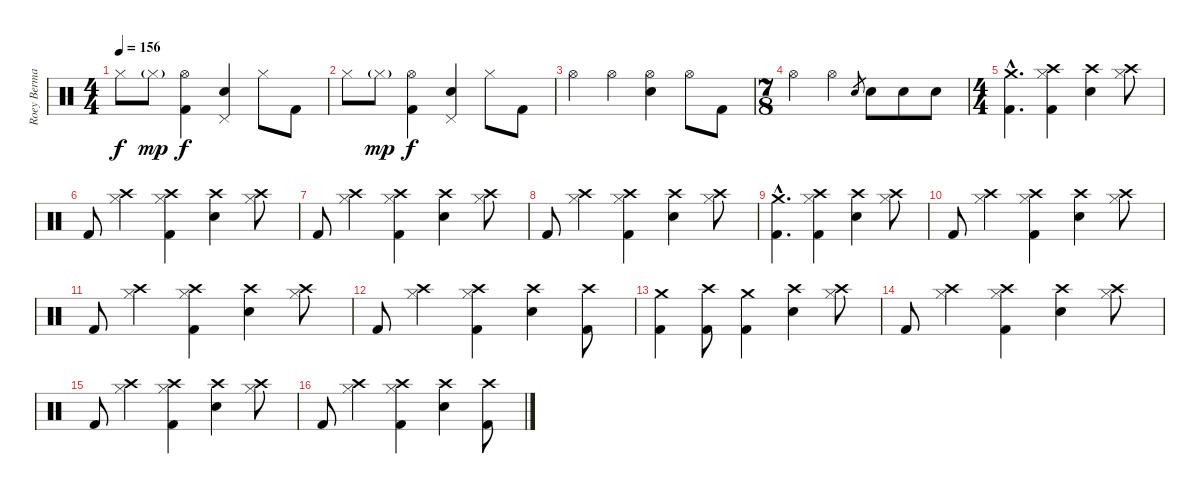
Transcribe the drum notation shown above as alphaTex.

\track ("Roey Berman" "Roey Berma") {instrument percussion}
\staff {score}
\articulation defaults
\ts (4 4)
\tempo 156
\clef neutral
\ks c "Hi-Hat (closed)".8{dy f} "Hi-Hat (closed)"{g}.8{dy mp}
("Hi-Hat (open)" "Kick (hit) 2").4{dy f} ("Pedal Hi-Hat (hit)" "Electric Snare (hit)").4 "Hi-Hat (closed)".8 "Kick (hit) 2".8 |
"Hi-Hat (closed)".8 "Hi-Hat (closed)"{g}.8{dy mp} ("Hi-Hat (open)" "Kick (hit) 2").4{dy f} ("Pedal Hi-Hat (hit)" "Electric Snare (hit)").4 "Hi-Hat (closed)".8 "Kick (hit) 2".8 |
"Hi-Hat (open)".4 "Hi-Hat (open)".4 ("Hi-Hat (open)" "Electric Snare (hit)").4 "Hi-Hat (open)".8 "Kick (hit) 2".8 |
\ts (7 8)
"Hi-Hat (open)".4 "Hi-Hat (open)".4 "Electric Snare (hit)".8{gr} "Electric Snare (hit)".8 "Electric Snare (hit)".8 "Electric Snare (hit)".8 |
\ts (4 4)
("Crash medium (hit)"{hac} "Kick (hit) 2"{hac}).4{d} ("Crash high (hit)" "Hi-Hat (closed)" "Kick (hit) 2").4 ("Crash high (hit)" "Electric Snare (hit)").4 ("Crash high (hit)" "Hi-Hat (closed)").8 |
"Kick (hit) 2".8 ("Crash high (hit)" "Hi-Hat (closed)").4 ("Crash high (hit)" "Hi-Hat (closed)" "Kick (hit) 2").4 ("Crash high (hit)" "Electric Snare (hit)").4 ("Crash high (hit)" "Hi-Hat (closed)").8 |
"Kick (hit) 2".8 ("Crash high (hit)" "Hi-Hat (closed)").4 ("Crash high (hit)" "Hi-Hat (closed)" "Kick (hit) 2").4 ("Crash high (hit)" "Electric Snare (hit)").4 ("Crash high (hit)" "Hi-Hat (closed)").8 |
"Kick (hit) 2".8 ("Crash high (hit)" "Hi-Hat (closed)").4 ("Crash high (hit)" "Hi-Hat (closed)" "Kick (hit) 2").4 ("Crash high (hit)" "Electric Snare (hit)").4 ("Crash high (hit)" "Hi-Hat (closed)").8 |
("Crash medium (hit)"{hac} "Kick (hit) 2"{hac}).4{d} ("Crash high (hit)" "Hi-Hat (closed)" "Kick (hit) 2").4 ("Crash high (hit)" "Electric Snare (hit)").4 ("Crash high (hit)" "Hi-Hat (closed)").8 |
"Kick (hit) 2".8 ("Crash high (hit)" "Hi-Hat (closed)").4 ("Crash high (hit)" "Hi-Hat (closed)" "Kick (hit) 2").4 ("Crash high (hit)" "Electric Snare (hit)").4 ("Crash high (hit)" "Hi-Hat (closed)").8 |
"Kick (hit) 2".8 ("Crash high (hit)" "Hi-Hat (closed)").4 ("Crash high (hit)" "Hi-Hat (closed)" "Kick (hit) 2").4 ("Crash high (hit)" "Electric Snare (hit)").4 ("Crash high (hit)" "Hi-Hat (closed)").8 |
"Kick (hit) 2".8 ("Crash high (hit)" "Hi-Hat (closed)").4 ("Crash high (hit)" "Hi-Hat (closed)" "Kick (hit) 2").4 ("Crash high (hit)" "Electric Snare (hit)").4 ("Crash high (hit)" "Kick (hit) 2").8 |
("Crash medium (hit)" "Kick (hit) 2").4 ("Crash high (hit)" "Kick (hit) 2").8 ("Crash medium (hit)" "Kick (hit) 2").4 ("Crash high (hit)" "Electric Snare (hit)").4 ("Crash high (hit)" "Hi-Hat (closed)").8 |
"Kick (hit) 2".8 ("Crash high (hit)" "Hi-Hat (closed)").4 ("Crash high (hit)" "Hi-Hat (closed)" "Kick (hit) 2").4 ("Crash high (hit)" "Electric Snare (hit)").4 ("Crash high (hit)" "Hi-Hat (closed)").8 |
"Kick (hit) 2".8 ("Crash high (hit)" "Hi-Hat (closed)").4 ("Crash high (hit)" "Hi-Hat (closed)" "Kick (hit) 2").4 ("Crash high (hit)" "Electric Snare (hit)").4 ("Crash high (hit)" "Hi-Hat (closed)").8 |
"Kick (hit) 2".8 ("Crash high (hit)" "Hi-Hat (closed)").4 ("Crash high (hit)" "Hi-Hat (closed)" "Kick (hit) 2").4 ("Crash high (hit)" "Electric Snare (hit)").4 ("Crash high (hit)" "Kick (hit) 2").8
